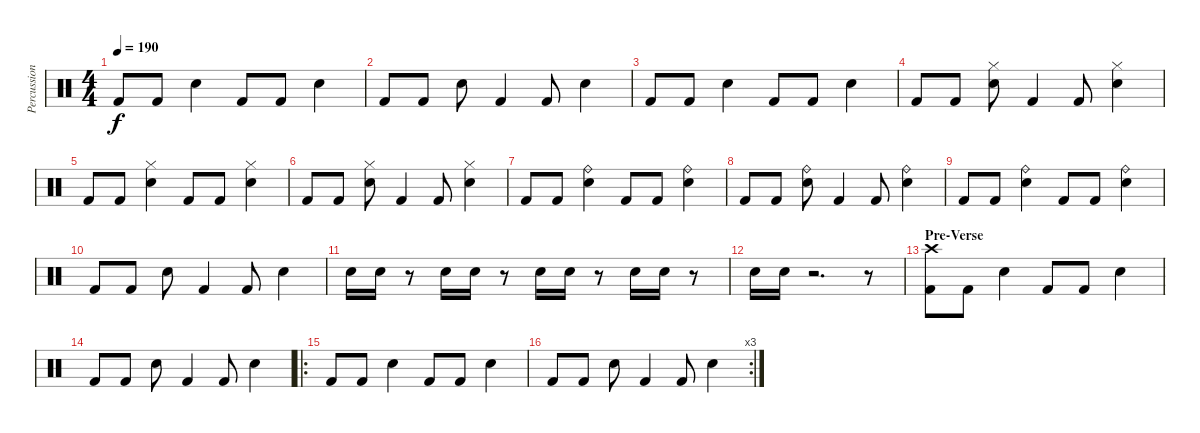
\track ("Percussion" "Percussion") {instrument percussion}
\staff {score}
\articulation defaults
\ts (4 4)
\tempo 190
\clef neutral
\ks c "Kick (hit) 2".8{dy f} "Kick (hit) 2".8 "Snare (hit) 2".4 "Kick (hit) 2".8 "Kick (hit) 2".8 "Snare (hit) 2".4
|
"Kick (hit) 2".8 "Kick (hit) 2".8 "Snare (hit) 2".8 "Kick (hit) 2".4 "Kick (hit) 2".8 "Snare (hit) 2".4 |
"Kick (hit) 2".8 "Kick (hit) 2".8 "Snare (hit) 2".4 "Kick (hit) 2".8 "Kick (hit) 2".8 "Snare (hit) 2".4 |
"Kick (hit) 2".8 "Kick (hit) 2".8 ("Hi-Hat (closed)" "Snare (hit) 2").8 "Kick (hit) 2".4 "Kick (hit) 2".8 ("Hi-Hat (closed)" "Snare (hit) 2").4 |
"Kick (hit) 2".8 "Kick (hit) 2".8 ("Hi-Hat (closed)" "Snare (hit) 2").4 "Kick (hit) 2".8 "Kick (hit) 2".8 ("Hi-Hat (closed)" "Snare (hit) 2").4 |
"Kick (hit) 2".8 "Kick (hit) 2".8 ("Snare (hit) 2" "Hi-Hat (closed)").8 "Kick (hit) 2".4 "Kick (hit) 2".8 ("Snare (hit) 2" "Hi-Hat (closed)").4 |
"Kick (hit) 2".8 "Kick (hit) 2".8 ("Snare (hit) 2" "Ride (bell)").4 "Kick (hit) 2".8 "Kick (hit) 2".8 ("Snare (hit) 2" "Ride (bell)").4 |
"Kick (hit) 2".8 "Kick (hit) 2".8 ("Snare (hit) 2" "Ride (bell)").8 "Kick (hit) 2".4 "Kick (hit) 2".8 ("Snare (hit) 2" "Ride (bell)").4 |
"Kick (hit) 2".8 "Kick (hit) 2".8 ("Ride (bell)" "Snare (hit) 2").4 "Kick (hit) 2".8 "Kick (hit) 2".8 ("Ride (bell)" "Snare (hit) 2").4 |
"Kick (hit) 2".8 "Kick (hit) 2".8 "Snare (hit) 2".8 "Kick (hit) 2".4 "Kick (hit) 2".8 "Snare (hit) 2".4 |
"Snare (hit) 2".16 "Snare (hit) 2".16 r.8 "Snare (hit) 2".16 "Snare (hit) 2".16 r.8 "Snare (hit) 2".16 "Snare (hit) 2".16 r.8 "Snare (hit) 2".16 "Snare (hit) 2".16 r.8 |
"Snare (hit) 2".16 "Snare (hit) 2".16 r.2{d} r.8 |
\section ("" "Pre-Verse")
("Kick (hit) 2" "Crash high (hit)").8 "Kick (hit) 2".8 "Snare (hit) 2".4 "Kick (hit) 2".8 "Kick (hit) 2".8 "Snare (hit) 2".4 |
"Kick (hit) 2".8 "Kick (hit) 2".8 "Snare (hit) 2".8 "Kick (hit) 2".4 "Kick (hit) 2".8 "Snare (hit) 2".4 |
\ro "Kick (hit) 2".8 "Kick (hit) 2".8 "Snare (hit) 2".4 "Kick (hit) 2".8 "Kick (hit) 2".8 "Snare (hit) 2".4
|
\rc 3 "Kick (hit) 2".8 "Kick (hit) 2".8 "Snare (hit) 2".8 "Kick (hit) 2".4 "Kick (hit) 2".8 "Snare (hit) 2".4
